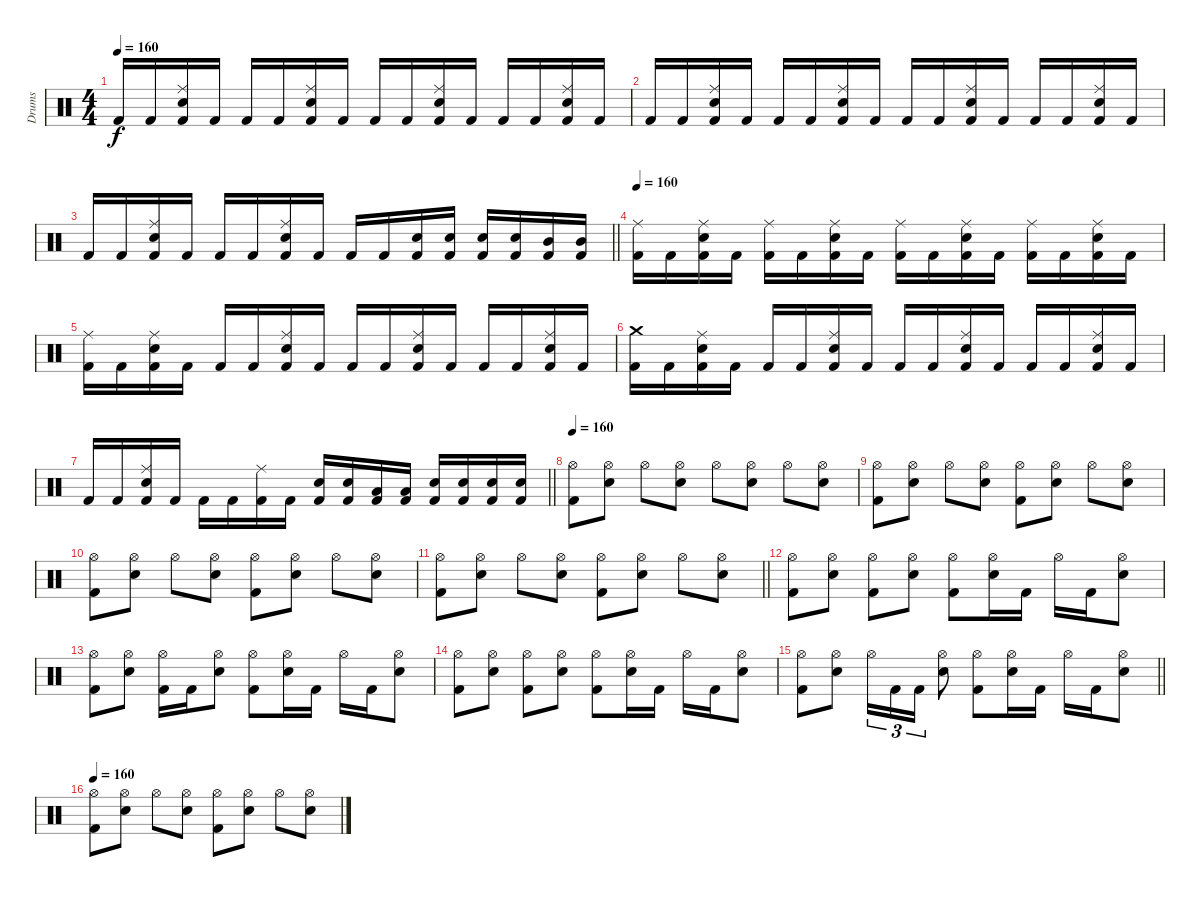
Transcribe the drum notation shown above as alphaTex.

\track ("Drums" "Drums") {instrument percussion}
\staff {score}
\articulation defaults
\ts (4 4)
\tempo 160
\clef neutral
\ks c "Kick (hit) 2".16{dy f} "Kick (hit) 2".16
("Ride (middle)" "Snare (hit) 2" "Kick (hit) 2").16 "Kick (hit) 2".16 "Kick (hit) 2".16 "Kick (hit) 2".16 ("Ride (middle)" "Snare (hit) 2" "Kick (hit) 2").16 "Kick (hit) 2".16 "Kick (hit) 2".16 "Kick (hit) 2".16 ("Ride (middle)" "Snare (hit) 2" "Kick (hit) 2").16 "Kick (hit) 2".16 "Kick (hit) 2".16 "Kick (hit) 2".16 ("Ride (middle)" "Snare (hit) 2" "Kick (hit) 2").16 "Kick (hit) 2".16 |
"Kick (hit) 2".16 "Kick (hit) 2".16 ("Ride (middle)" "Snare (hit) 2" "Kick (hit) 2").16 "Kick (hit) 2".16 "Kick (hit) 2".16 "Kick (hit) 2".16 ("Ride (middle)" "Snare (hit) 2" "Kick (hit) 2").16 "Kick (hit) 2".16 "Kick (hit) 2".16 "Kick (hit) 2".16 ("Ride (middle)" "Snare (hit) 2" "Kick (hit) 2").16 "Kick (hit) 2".16 "Kick (hit) 2".16 "Kick (hit) 2".16 ("Ride (middle)" "Snare (hit) 2" "Kick (hit) 2").16 "Kick (hit) 2".16 |
\barLineRight lightlight "Kick (hit) 2".16 "Kick (hit) 2".16
("Ride (middle)" "Snare (hit) 2" "Kick (hit) 2").16 "Kick (hit) 2".16 "Kick (hit) 2".16 "Kick (hit) 2".16 ("Ride (middle)" "Snare (hit) 2" "Kick (hit) 2").16 "Kick (hit) 2".16 "Kick (hit) 2".16 "Kick (hit) 2".16 ("Snare (hit) 2" "Kick (hit) 2").16 ("Snare (hit) 2" "Kick (hit) 2").16 ("Snare (hit) 2" "Kick (hit) 2").16 ("Snare (hit) 2" "Kick (hit) 2").16 ("Mid Tom (hit)" "Kick (hit) 2").16 ("Mid Tom (hit)" "Kick (hit) 2").16 |
\tempo 160
("Ride (middle)" "Kick (hit) 2").16 "Kick (hit) 2".16 ("Ride (middle)" "Snare (hit) 2" "Kick (hit) 2").16 "Kick (hit) 2".16 ("Ride (middle)" "Kick (hit) 2").16 "Kick (hit) 2".16 ("Ride (middle)" "Snare (hit) 2" "Kick (hit) 2").16 "Kick (hit) 2".16 ("Ride (middle)" "Kick (hit) 2").16 "Kick (hit) 2".16 ("Ride (middle)" "Snare (hit) 2" "Kick (hit) 2").16 "Kick (hit) 2".16 ("Ride (middle)" "Kick (hit) 2").16 "Kick (hit) 2".16 ("Ride (middle)" "Snare (hit) 2" "Kick (hit) 2").16 "Kick (hit) 2".16 |
("Ride (middle)" "Kick (hit) 2").16 "Kick (hit) 2".16 ("Ride (middle)" "Snare (hit) 2" "Kick (hit) 2").16 "Kick (hit) 2".16 "Kick (hit) 2".16 "Kick (hit) 2".16 ("Ride (middle)" "Snare (hit) 2" "Kick (hit) 2").16 "Kick (hit) 2".16 "Kick (hit) 2".16 "Kick (hit) 2".16 ("Ride (middle)" "Snare (hit) 2" "Kick (hit) 2").16 "Kick (hit) 2".16 "Kick (hit) 2".16 "Kick (hit) 2".16 ("Ride (middle)" "Snare (hit) 2" "Kick (hit) 2").16 "Kick (hit) 2".16 |
("Crash medium (hit)" "Kick (hit) 2").16 "Kick (hit) 2".16 ("Ride (middle)" "Snare (hit) 2" "Kick (hit) 2").16 "Kick (hit) 2".16 "Kick (hit) 2".16 "Kick (hit) 2".16 ("Ride (middle)" "Snare (hit) 2" "Kick (hit) 2").16 "Kick (hit) 2".16 "Kick (hit) 2".16 "Kick (hit) 2".16 ("Ride (middle)" "Snare (hit) 2" "Kick (hit) 2").16 "Kick (hit) 2".16 "Kick (hit) 2".16 "Kick (hit) 2".16 ("Ride (middle)" "Snare (hit) 2" "Kick (hit) 2").16 "Kick (hit) 2".16 |
\barLineRight lightlight "Kick (hit) 2".16 "Kick (hit) 2".16
("Ride (middle)" "Snare (hit) 2" "Kick (hit) 2").16 "Kick (hit) 2".16 "Kick (hit) 2".16 "Kick (hit) 2".16 ("Ride (middle)" "Kick (hit) 2").16 "Kick (hit) 2".16 ("Snare (hit) 2" "Kick (hit) 2").16 ("Snare (hit) 2" "Kick (hit) 2").16 ("Low Tom (hit)" "Kick (hit) 2").16 ("Low Tom (hit)" "Kick (hit) 2").16 ("Snare (hit) 2" "Kick (hit) 2").16 ("Snare (hit) 2" "Kick (hit) 2").16 ("Snare (hit) 2" "Kick (hit) 2").16 ("Snare (hit) 2" "Kick (hit) 2").16 |
\tempo 160
("Hi-Hat (open)" "Kick (hit) 2").8 ("Hi-Hat (open)" "Snare (hit) 2").8 "Hi-Hat (open)".8 ("Hi-Hat (open)" "Snare (hit) 2").8 "Hi-Hat (open)".8 ("Hi-Hat (open)" "Snare (hit) 2").8 "Hi-Hat (open)".8 ("Hi-Hat (open)" "Snare (hit) 2").8 |
("Hi-Hat (open)" "Kick (hit) 2").8 ("Hi-Hat (open)" "Snare (hit) 2").8 "Hi-Hat (open)".8 ("Hi-Hat (open)" "Snare (hit) 2").8 ("Hi-Hat (open)" "Kick (hit) 2").8 ("Hi-Hat (open)" "Snare (hit) 2").8 "Hi-Hat (open)".8 ("Hi-Hat (open)" "Snare (hit) 2").8 |
("Hi-Hat (open)" "Kick (hit) 2").8 ("Hi-Hat (open)" "Snare (hit) 2").8 "Hi-Hat (open)".8 ("Hi-Hat (open)" "Snare (hit) 2").8 ("Hi-Hat (open)" "Kick (hit) 2").8 ("Hi-Hat (open)" "Snare (hit) 2").8 "Hi-Hat (open)".8 ("Hi-Hat (open)" "Snare (hit) 2").8 |
\barLineRight lightlight
("Hi-Hat (open)" "Kick (hit) 2").8 ("Hi-Hat (open)" "Snare (hit) 2").8 "Hi-Hat (open)".8 ("Hi-Hat (open)" "Snare (hit) 2").8 ("Hi-Hat (open)" "Kick (hit) 2").8 ("Hi-Hat (open)" "Snare (hit) 2").8 "Hi-Hat (open)".8 ("Hi-Hat (open)" "Snare (hit) 2").8 |
("Hi-Hat (open)" "Kick (hit) 2").8 ("Hi-Hat (open)" "Snare (hit) 2").8 ("Hi-Hat (open)" "Kick (hit) 2").8 ("Hi-Hat (open)" "Snare (hit) 2").8 ("Hi-Hat (open)" "Kick (hit) 2").8 ("Hi-Hat (open)" "Snare (hit) 2").16 "Kick (hit) 2".16 "Hi-Hat (open)".16 "Kick (hit) 2".16 ("Hi-Hat (open)" "Snare (hit) 2").8 |
("Hi-Hat (open)" "Kick (hit) 2").8 ("Hi-Hat (open)" "Snare (hit) 2").8 ("Hi-Hat (open)" "Kick (hit) 2").16 "Kick (hit) 2".16 ("Hi-Hat (open)" "Snare (hit) 2").8 ("Hi-Hat (open)" "Kick (hit) 2").8 ("Hi-Hat (open)" "Snare (hit) 2").16 "Kick (hit) 2".16 "Hi-Hat (open)".16 "Kick (hit) 2".16 ("Hi-Hat (open)" "Snare (hit) 2").8 |
("Hi-Hat (open)" "Kick (hit) 2").8 ("Hi-Hat (open)" "Snare (hit) 2").8 ("Hi-Hat (open)" "Kick (hit) 2").8 ("Hi-Hat (open)" "Snare (hit) 2").8 ("Hi-Hat (open)" "Kick (hit) 2").8 ("Hi-Hat (open)" "Snare (hit) 2").16 "Kick (hit) 2".16 "Hi-Hat (open)".16 "Kick (hit) 2".16 ("Hi-Hat (open)" "Snare (hit) 2").8 |
\barLineRight lightlight
("Hi-Hat (open)" "Kick (hit) 2").8 ("Hi-Hat (open)" "Snare (hit) 2").8 "Hi-Hat (open)".16{tu (3 2)} "Kick (hit) 2".16{tu (3 2)} "Kick (hit) 2".16{tu (3 2)} ("Hi-Hat (open)" "Snare (hit) 2").8 ("Hi-Hat (open)" "Kick (hit) 2").8 ("Hi-Hat (open)" "Snare (hit) 2").16 "Kick (hit) 2".16 "Hi-Hat (open)".16 "Kick (hit) 2".16 ("Hi-Hat (open)" "Snare (hit) 2").8 |
\tempo 160
("Hi-Hat (open)" "Kick (hit) 2").8 ("Hi-Hat (open)" "Snare (hit) 2").8 "Hi-Hat (open)".8 ("Hi-Hat (open)" "Snare (hit) 2").8 ("Hi-Hat (open)" "Kick (hit) 2").8 ("Hi-Hat (open)" "Snare (hit) 2").8 "Hi-Hat (open)".8 ("Hi-Hat (open)" "Snare (hit) 2").8
